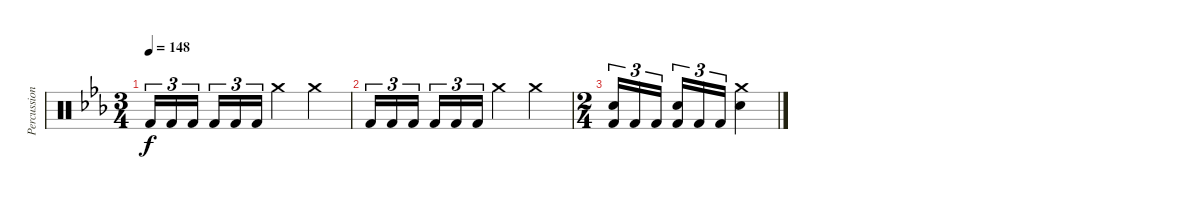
\track ("Percussion" "Percussion") {instrument percussion}
\staff {score}
\articulation defaults
\ts (3 4)
\tempo 148
\clef neutral
\ks eb "Kick (hit) 2".16{tu (3 2) dy f} "Kick (hit) 2".16{tu (3 2)} "Kick (hit) 2".16{tu (3 2)} "Kick (hit) 2".16{tu (3 2)} "Kick (hit) 2".16{tu (3 2)} "Kick (hit) 2".16{tu (3 2)} "Crash medium (hit)".4 "Crash medium (hit)".4
|
"Kick (hit) 2".16{tu (3 2)} "Kick (hit) 2".16{tu (3 2)} "Kick (hit) 2".16{tu (3 2)} "Kick (hit) 2".16{tu (3 2)} "Kick (hit) 2".16{tu (3 2)} "Kick (hit) 2".16{tu (3 2)} "Crash medium (hit)".4 "Crash medium (hit)".4 |
\ts (2 4)
("Snare (hit) 2" "Kick (hit) 2").16{tu (3 2)} "Kick (hit) 2".16{tu (3 2)} "Kick (hit) 2".16{tu (3 2)} ("Snare (hit) 2" "Kick (hit) 2").16{tu (3 2)} "Kick (hit) 2".16{tu (3 2)} "Kick (hit) 2".16{tu (3 2)} ("Crash medium (hit)" "Snare (hit) 2").4
